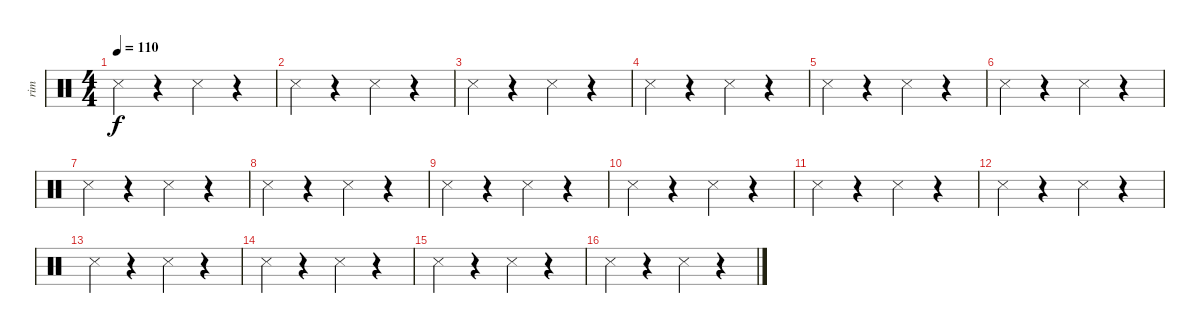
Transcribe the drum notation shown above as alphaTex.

\track ("rim     " "rim     ") {instrument percussion}
\staff {score}
\articulation defaults
\ts (4 4)
\tempo 110
\clef neutral
\ks c "Snare (side stick) 3".4{dy f}
r.4 "Snare (side stick) 3".4 r.4 |
"Snare (side stick) 3".4 r.4 "Snare (side stick) 3".4 r.4 |
"Snare (side stick) 3".4 r.4 "Snare (side stick) 3".4 r.4 |
"Snare (side stick) 3".4 r.4 "Snare (side stick) 3".4 r.4 |
"Snare (side stick) 3".4 r.4 "Snare (side stick) 3".4 r.4 |
"Snare (side stick) 3".4 r.4 "Snare (side stick) 3".4 r.4 |
"Snare (side stick) 3".4 r.4 "Snare (side stick) 3".4 r.4 |
"Snare (side stick) 3".4 r.4 "Snare (side stick) 3".4 r.4 |
"Snare (side stick) 3".4 r.4 "Snare (side stick) 3".4 r.4 |
"Snare (side stick) 3".4 r.4 "Snare (side stick) 3".4 r.4 |
"Snare (side stick) 3".4 r.4 "Snare (side stick) 3".4 r.4 |
"Snare (side stick) 3".4 r.4 "Snare (side stick) 3".4 r.4 |
"Snare (side stick) 3".4 r.4 "Snare (side stick) 3".4 r.4 |
"Snare (side stick) 3".4 r.4 "Snare (side stick) 3".4 r.4 |
"Snare (side stick) 3".4 r.4 "Snare (side stick) 3".4 r.4 |
"Snare (side stick) 3".4 r.4 "Snare (side stick) 3".4 r.4
